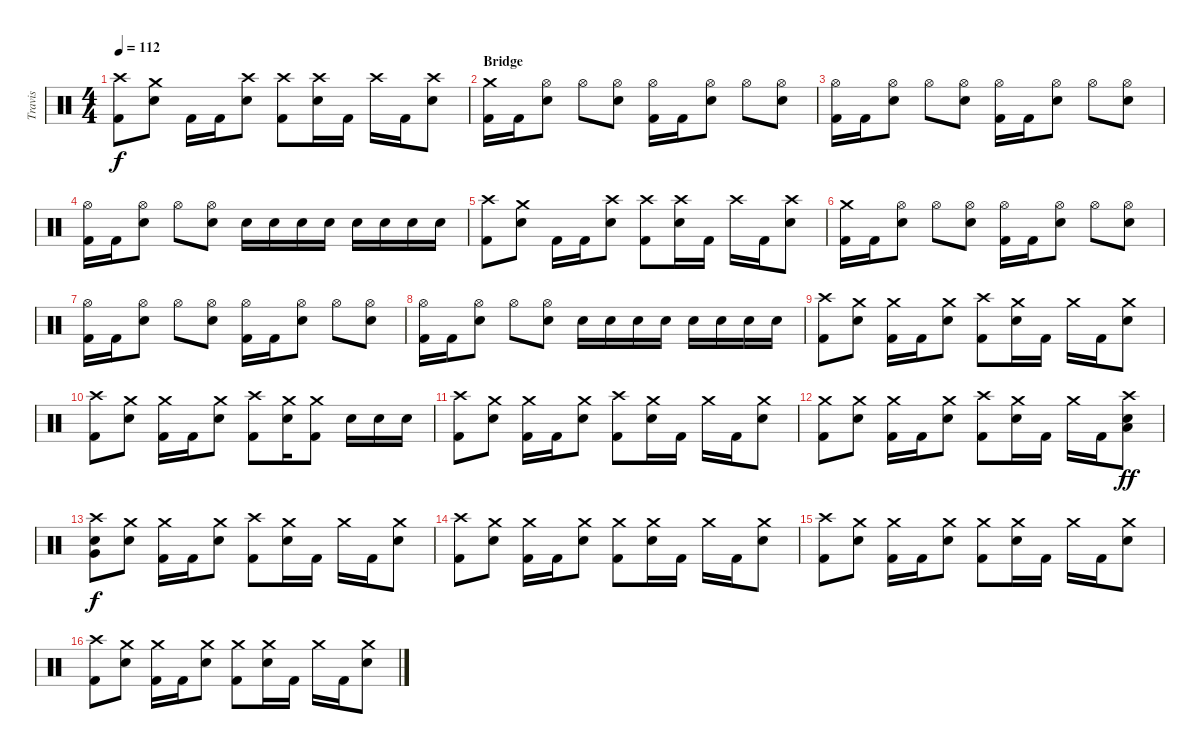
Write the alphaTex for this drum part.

\track ("Travis" "Travis") {instrument percussion}
\staff {score}
\articulation defaults
\ts (4 4)
\tempo 112
\clef neutral
\ks c
("Crash high (hit)" "Kick (hit) 2").8{dy f} ("Crash medium (hit)" "Electric Snare (hit)").8 "Kick (hit) 2".16 "Kick (hit) 2".16 ("Crash high (hit)" "Electric Snare (hit)").8 ("Crash high (hit)" "Kick (hit) 2").8 ("Crash high (hit)" "Electric Snare (hit)").16 "Kick (hit) 2".16 "Crash high (hit)".16 "Kick (hit) 2".16 ("Crash high (hit)" "Electric Snare (hit)").8 |
\section ("" "Bridge")
("Crash medium (hit)" "Kick (hit) 2").16 "Kick (hit) 2".16 ("Hi-Hat (open)" "Electric Snare (hit)").8 "Hi-Hat (open)".8 ("Hi-Hat (open)" "Electric Snare (hit)").8 ("Hi-Hat (open)" "Kick (hit) 2").16 "Kick (hit) 2".16 ("Hi-Hat (open)" "Electric Snare (hit)").8 "Hi-Hat (open)".8 ("Hi-Hat (open)" "Electric Snare (hit)").8 |
("Hi-Hat (open)" "Kick (hit) 2").16 "Kick (hit) 2".16 ("Hi-Hat (open)" "Electric Snare (hit)").8 "Hi-Hat (open)".8 ("Hi-Hat (open)" "Electric Snare (hit)").8 ("Hi-Hat (open)" "Kick (hit) 2").16 "Kick (hit) 2".16 ("Hi-Hat (open)" "Electric Snare (hit)").8 "Hi-Hat (open)".8 ("Hi-Hat (open)" "Electric Snare (hit)").8 |
("Hi-Hat (open)" "Kick (hit) 2").16 "Kick (hit) 2".16 ("Hi-Hat (open)" "Electric Snare (hit)").8 "Hi-Hat (open)".8 ("Hi-Hat (open)" "Electric Snare (hit)").8 "Electric Snare (hit)".16 "Electric Snare (hit)".16 "Electric Snare (hit)".16 "Electric Snare (hit)".16 "Electric Snare (hit)".16 "Electric Snare (hit)".16 "Electric Snare (hit)".16 "Electric Snare (hit)".16 |
("Crash high (hit)" "Kick (hit) 2").8 ("Crash medium (hit)" "Electric Snare (hit)").8 "Kick (hit) 2".16 "Kick (hit) 2".16 ("Crash high (hit)" "Electric Snare (hit)").8 ("Crash high (hit)" "Kick (hit) 2").8 ("Crash high (hit)" "Electric Snare (hit)").16 "Kick (hit) 2".16 "Crash high (hit)".16 "Kick (hit) 2".16 ("Crash high (hit)" "Electric Snare (hit)").8 |
("Crash medium (hit)" "Kick (hit) 2").16 "Kick (hit) 2".16 ("Hi-Hat (open)" "Electric Snare (hit)").8 "Hi-Hat (open)".8 ("Hi-Hat (open)" "Electric Snare (hit)").8 ("Hi-Hat (open)" "Kick (hit) 2").16 "Kick (hit) 2".16 ("Hi-Hat (open)" "Electric Snare (hit)").8 "Hi-Hat (open)".8 ("Hi-Hat (open)" "Electric Snare (hit)").8 |
("Hi-Hat (open)" "Kick (hit) 2").16 "Kick (hit) 2".16 ("Hi-Hat (open)" "Electric Snare (hit)").8 "Hi-Hat (open)".8 ("Hi-Hat (open)" "Electric Snare (hit)").8 ("Hi-Hat (open)" "Kick (hit) 2").16 "Kick (hit) 2".16 ("Hi-Hat (open)" "Electric Snare (hit)").8 "Hi-Hat (open)".8 ("Hi-Hat (open)" "Electric Snare (hit)").8 |
("Hi-Hat (open)" "Kick (hit) 2").16 "Kick (hit) 2".16 ("Hi-Hat (open)" "Electric Snare (hit)").8 "Hi-Hat (open)".8 ("Hi-Hat (open)" "Electric Snare (hit)").8 "Electric Snare (hit)".16 "Electric Snare (hit)".16 "Electric Snare (hit)".16 "Electric Snare (hit)".16 "Electric Snare (hit)".16 "Electric Snare (hit)".16 "Electric Snare (hit)".16 "Electric Snare (hit)".16 |
("Crash high (hit)" "Kick (hit) 2").8 ("Crash medium (hit)" "Electric Snare (hit)").8 ("Crash medium (hit)" "Kick (hit) 2").16 "Kick (hit) 2".16 ("Crash medium (hit)" "Electric Snare (hit)").8 ("Crash high (hit)" "Kick (hit) 2").8 ("Crash medium (hit)" "Electric Snare (hit)").16 "Kick (hit) 2".16 "Crash medium (hit)".16 "Kick (hit) 2".16 ("Crash medium (hit)" "Electric Snare (hit)").8 |
("Crash high (hit)" "Kick (hit) 2").8 ("Crash medium (hit)" "Electric Snare (hit)").8 ("Crash medium (hit)" "Kick (hit) 2").16 "Kick (hit) 2".16 ("Crash medium (hit)" "Electric Snare (hit)").8 ("Crash high (hit)" "Kick (hit) 2").8 ("Crash medium (hit)" "Electric Snare (hit)").16 ("Crash medium (hit)" "Kick (hit) 2").8 "Electric Snare (hit)".16 "Electric Snare (hit)".16 "Electric Snare (hit)".16 |
("Crash high (hit)" "Kick (hit) 2").8 ("Crash medium (hit)" "Electric Snare (hit)").8 ("Crash medium (hit)" "Kick (hit) 2").16 "Kick (hit) 2".16 ("Crash medium (hit)" "Electric Snare (hit)").8 ("Crash high (hit)" "Kick (hit) 2").8 ("Crash medium (hit)" "Electric Snare (hit)").16 "Kick (hit) 2".16 "Crash medium (hit)".16 "Kick (hit) 2".16 ("Crash medium (hit)" "Electric Snare (hit)").8 |
("Crash medium (hit)" "Kick (hit) 2").8 ("Crash medium (hit)" "Electric Snare (hit)").8 ("Crash medium (hit)" "Kick (hit) 2").16 "Kick (hit) 2".16 ("Crash medium (hit)" "Electric Snare (hit)").8 ("Crash high (hit)" "Kick (hit) 2").8 ("Crash medium (hit)" "Electric Snare (hit)").16 "Kick (hit) 2".16 "Crash medium (hit)".16 "Kick (hit) 2".16 ("Crash high (hit)" "Low Tom (hit)" "Electric Snare (hit)").8{dy ff} |
("Crash high (hit)" "Very Low Tom (hit)" "Electric Snare (hit)").8{dy f} ("Crash medium (hit)" "Electric Snare (hit)").8 ("Crash medium (hit)" "Kick (hit) 2").16 "Kick (hit) 2".16 ("Crash medium (hit)" "Electric Snare (hit)").8 ("Crash high (hit)" "Kick (hit) 2").8 ("Crash medium (hit)" "Electric Snare (hit)").16 "Kick (hit) 2".16 "Crash medium (hit)".16 "Kick (hit) 2".16 ("Crash medium (hit)" "Electric Snare (hit)").8 |
("Crash high (hit)" "Kick (hit) 2").8 ("Crash medium (hit)" "Electric Snare (hit)").8 ("Crash medium (hit)" "Kick (hit) 2").16 "Kick (hit) 2".16 ("Crash medium (hit)" "Electric Snare (hit)").8 ("Crash medium (hit)" "Kick (hit) 2").8 ("Crash medium (hit)" "Electric Snare (hit)").16 "Kick (hit) 2".16 "Crash medium (hit)".16 "Kick (hit) 2".16 ("Crash medium (hit)" "Electric Snare (hit)").8 |
("Crash high (hit)" "Kick (hit) 2").8 ("Crash medium (hit)" "Electric Snare (hit)").8 ("Crash medium (hit)" "Kick (hit) 2").16 "Kick (hit) 2".16 ("Crash medium (hit)" "Electric Snare (hit)").8 ("Crash medium (hit)" "Kick (hit) 2").8 ("Crash medium (hit)" "Electric Snare (hit)").16 "Kick (hit) 2".16 "Crash medium (hit)".16 "Kick (hit) 2".16 ("Crash medium (hit)" "Electric Snare (hit)").8 |
("Crash high (hit)" "Kick (hit) 2").8 ("Crash medium (hit)" "Electric Snare (hit)").8 ("Crash medium (hit)" "Kick (hit) 2").16 "Kick (hit) 2".16 ("Crash medium (hit)" "Electric Snare (hit)").8 ("Crash medium (hit)" "Kick (hit) 2").8 ("Crash medium (hit)" "Electric Snare (hit)").16 "Kick (hit) 2".16 "Crash medium (hit)".16 "Kick (hit) 2".16 ("Crash medium (hit)" "Electric Snare (hit)").8
